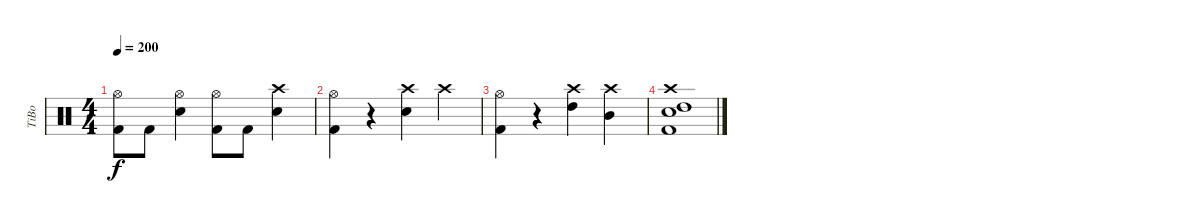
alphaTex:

\track ("TiBo" "TiBo") {instrument percussion}
\staff {score}
\articulation defaults
\ts (4 4)
\tempo 200
\clef neutral
\ks c
("Hi-Hat (open)" "Kick (hit) 2").8{dy f} "Kick (hit) 2".8 ("Hi-Hat (open)" "Snare (hit) 2").4 ("Hi-Hat (open)" "Kick (hit) 2").8 "Kick (hit) 2".8 ("Crash high (hit)" "Snare (hit) 2").4 |
("Hi-Hat (open)" "Kick (hit) 2").4 r.4 ("Crash high (hit)" "Snare (hit) 2").4 "Crash high (hit)".4 |
("Hi-Hat (open)" "Kick (hit) 2").4 r.4 ("Crash high (hit)" "High Tom (hit)").4 ("Crash high (hit)" "Mid Tom (hit)").4 |
("Crash high (hit)" "Snare (hit) 2" "High Tom (hit)" "Kick (hit) 2").1
